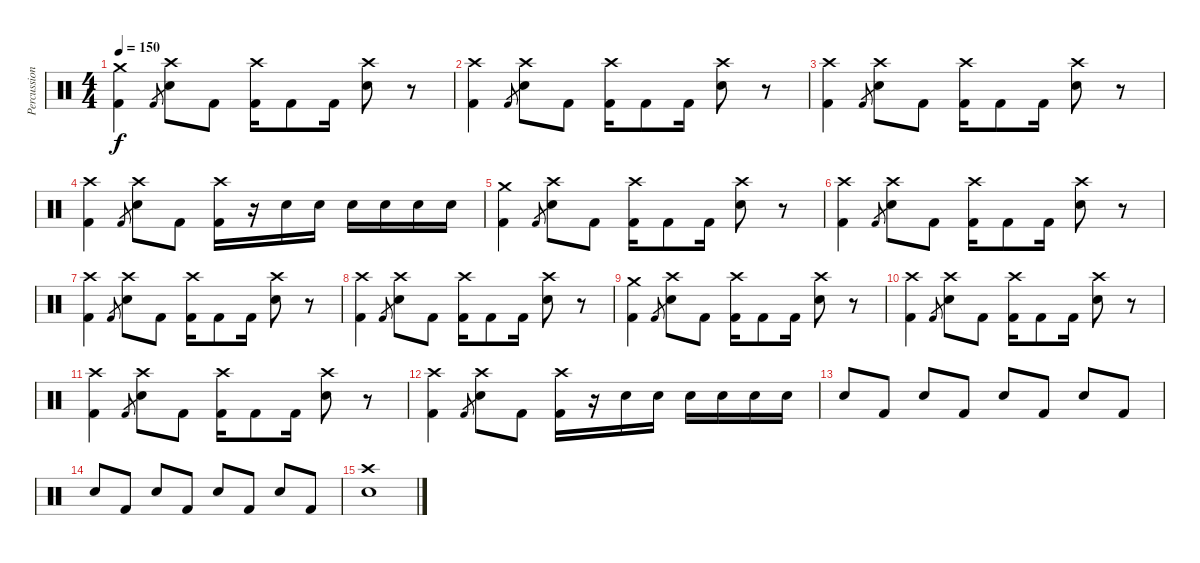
\track ("Percussion" "Percussion") {instrument percussion}
\staff {score}
\articulation defaults
\ts (4 4)
\tempo 150
\clef neutral
\ks c
("Crash medium (hit)" "Kick (hit) 2").4{dy f} "Kick (hit) 2".8{gr} ("Crash high (hit)" "Snare (hit) 2").8 "Kick (hit) 2".8 ("Crash high (hit)" "Kick (hit) 2").16 "Kick (hit) 2".8 "Kick (hit) 2".16 ("Crash high (hit)" "Snare (hit) 2").8 r.8 |
("Crash high (hit)" "Kick (hit) 2").4 "Kick (hit) 2".8{gr} ("Crash high (hit)" "Snare (hit) 2").8 "Kick (hit) 2".8 ("Crash high (hit)" "Kick (hit) 2").16 "Kick (hit) 2".8 "Kick (hit) 2".16 ("Crash high (hit)" "Snare (hit) 2").8 r.8 |
("Crash high (hit)" "Kick (hit) 2").4 "Kick (hit) 2".8{gr} ("Crash high (hit)" "Snare (hit) 2").8 "Kick (hit) 2".8 ("Crash high (hit)" "Kick (hit) 2").16 "Kick (hit) 2".8 "Kick (hit) 2".16 ("Crash high (hit)" "Snare (hit) 2").8 r.8 |
("Crash high (hit)" "Kick (hit) 2").4 "Kick (hit) 2".8{gr} ("Crash high (hit)" "Snare (hit) 2").8 "Kick (hit) 2".8 ("Crash high (hit)" "Kick (hit) 2").16 r.16 "Snare (hit) 2".16 "Snare (hit) 2".16 "Snare (hit) 2".16 "Snare (hit) 2".16 "Snare (hit) 2".16 "Snare (hit) 2".16 |
("Crash medium (hit)" "Kick (hit) 2").4 "Kick (hit) 2".8{gr} ("Crash high (hit)" "Snare (hit) 2").8 "Kick (hit) 2".8 ("Crash high (hit)" "Kick (hit) 2").16 "Kick (hit) 2".8 "Kick (hit) 2".16 ("Crash high (hit)" "Snare (hit) 2").8 r.8 |
("Crash high (hit)" "Kick (hit) 2").4 "Kick (hit) 2".8{gr} ("Crash high (hit)" "Snare (hit) 2").8 "Kick (hit) 2".8 ("Crash high (hit)" "Kick (hit) 2").16 "Kick (hit) 2".8 "Kick (hit) 2".16 ("Crash high (hit)" "Snare (hit) 2").8 r.8 |
("Crash high (hit)" "Kick (hit) 2").4 "Kick (hit) 2".8{gr} ("Crash high (hit)" "Snare (hit) 2").8 "Kick (hit) 2".8 ("Crash high (hit)" "Kick (hit) 2").16 "Kick (hit) 2".8 "Kick (hit) 2".16 ("Crash high (hit)" "Snare (hit) 2").8 r.8 |
("Crash high (hit)" "Kick (hit) 2").4 "Kick (hit) 2".8{gr} ("Crash high (hit)" "Snare (hit) 2").8 "Kick (hit) 2".8 ("Crash high (hit)" "Kick (hit) 2").16 "Kick (hit) 2".8 "Kick (hit) 2".16 ("Crash high (hit)" "Snare (hit) 2").8 r.8 |
("Crash medium (hit)" "Kick (hit) 2").4 "Kick (hit) 2".8{gr} ("Crash high (hit)" "Snare (hit) 2").8 "Kick (hit) 2".8 ("Crash high (hit)" "Kick (hit) 2").16 "Kick (hit) 2".8 "Kick (hit) 2".16 ("Crash high (hit)" "Snare (hit) 2").8 r.8 |
("Crash high (hit)" "Kick (hit) 2").4 "Kick (hit) 2".8{gr} ("Crash high (hit)" "Snare (hit) 2").8 "Kick (hit) 2".8 ("Crash high (hit)" "Kick (hit) 2").16 "Kick (hit) 2".8 "Kick (hit) 2".16 ("Crash high (hit)" "Snare (hit) 2").8 r.8 |
("Crash high (hit)" "Kick (hit) 2").4 "Kick (hit) 2".8{gr} ("Crash high (hit)" "Snare (hit) 2").8 "Kick (hit) 2".8 ("Crash high (hit)" "Kick (hit) 2").16 "Kick (hit) 2".8 "Kick (hit) 2".16 ("Crash high (hit)" "Snare (hit) 2").8 r.8 |
("Crash high (hit)" "Kick (hit) 2").4 "Kick (hit) 2".8{gr} ("Crash high (hit)" "Snare (hit) 2").8 "Kick (hit) 2".8 ("Crash high (hit)" "Kick (hit) 2").16 r.16 "Snare (hit) 2".16 "Snare (hit) 2".16 "Snare (hit) 2".16 "Snare (hit) 2".16 "Snare (hit) 2".16 "Snare (hit) 2".16 |
"Snare (hit) 2".8 "Kick (hit) 2".8 "Snare (hit) 2".8 "Kick (hit) 2".8 "Snare (hit) 2".8 "Kick (hit) 2".8 "Snare (hit) 2".8 "Kick (hit) 2".8 |
"Snare (hit) 2".8 "Kick (hit) 2".8 "Snare (hit) 2".8 "Kick (hit) 2".8 "Snare (hit) 2".8 "Kick (hit) 2".8 "Snare (hit) 2".8 "Kick (hit) 2".8 |
("Crash high (hit)" "Snare (hit) 2").1
